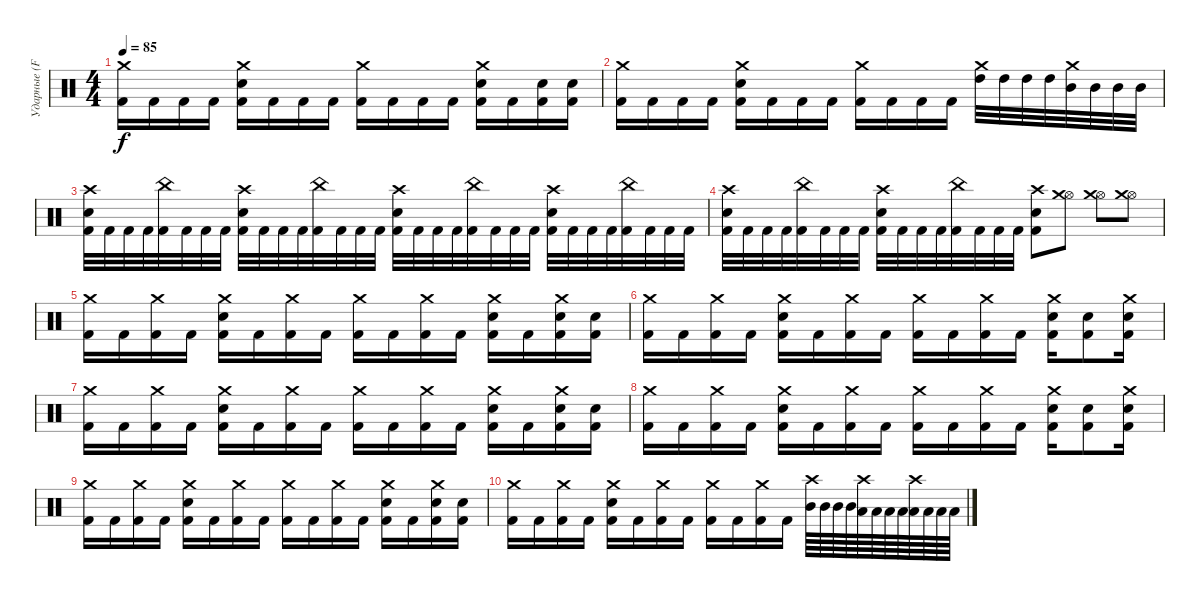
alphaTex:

\track ("Ударные (Feud'or)" "Ударные (F") {instrument percussion}
\staff {score}
\articulation defaults
\ts (4 4)
\tempo 85
\clef neutral
\ks c
("Crash medium (hit)" "Kick (hit) 2").16{dy f} "Kick (hit) 2".16 "Kick (hit) 2".16 "Kick (hit) 2".16 ("Crash medium (hit)" "Electric Snare (hit)" "Kick (hit) 2").16 "Kick (hit) 2".16 "Kick (hit) 2".16 "Kick (hit) 2".16 ("Crash medium (hit)" "Kick (hit) 2").16 "Kick (hit) 2".16 "Kick (hit) 2".16 "Kick (hit) 2".16 ("Crash medium (hit)" "Electric Snare (hit)" "Kick (hit) 2").16 "Kick (hit) 2".16 ("Electric Snare (hit)" "Kick (hit) 2").16 ("Electric Snare (hit)" "Kick (hit) 2").16 |
("Crash medium (hit)" "Kick (hit) 2").16 "Kick (hit) 2".16 "Kick (hit) 2".16 "Kick (hit) 2".16 ("Crash medium (hit)" "Electric Snare (hit)" "Kick (hit) 2").16 "Kick (hit) 2".16 "Kick (hit) 2".16 "Kick (hit) 2".16 ("Crash medium (hit)" "Kick (hit) 2").16 "Kick (hit) 2".16 "Kick (hit) 2".16 "Kick (hit) 2".16 ("Crash medium (hit)" "High Tom (hit)").32 "High Tom (hit)".32 "High Tom (hit)".32 "High Tom (hit)".32 ("Crash medium (hit)" "Mid Tom (hit)").32 "Mid Tom (hit)".32 "Mid Tom (hit)".32 "Mid Tom (hit)".32 |
("Crash high (hit)" "Electric Snare (hit)" "Kick (hit) 2").32 "Kick (hit) 2".32 "Kick (hit) 2".32 "Kick (hit) 2".32 ("China (hit)" "Kick (hit) 2").32 "Kick (hit) 2".32 "Kick (hit) 2".32 "Kick (hit) 2".32 ("Crash high (hit)" "Electric Snare (hit)" "Kick (hit) 2").32 "Kick (hit) 2".32 "Kick (hit) 2".32 "Kick (hit) 2".32 ("China (hit)" "Kick (hit) 2").32 "Kick (hit) 2".32 "Kick (hit) 2".32 "Kick (hit) 2".32 ("Crash high (hit)" "Electric Snare (hit)" "Kick (hit) 2").32 "Kick (hit) 2".32 "Kick (hit) 2".32 "Kick (hit) 2".32 ("China (hit)" "Kick (hit) 2").32 "Kick (hit) 2".32 "Kick (hit) 2".32 "Kick (hit) 2".32 ("Crash high (hit)" "Electric Snare (hit)" "Kick (hit) 2").32 "Kick (hit) 2".32 "Kick (hit) 2".32 "Kick (hit) 2".32 ("China (hit)" "Kick (hit) 2").32 "Kick (hit) 2".32 "Kick (hit) 2".32 "Kick (hit) 2".32 |
("Crash high (hit)" "Electric Snare (hit)" "Kick (hit) 2").32 "Kick (hit) 2".32 "Kick (hit) 2".32 "Kick (hit) 2".32 ("China (hit)" "Kick (hit) 2").32 "Kick (hit) 2".32 "Kick (hit) 2".32 "Kick (hit) 2".32 ("Crash high (hit)" "Electric Snare (hit)" "Kick (hit) 2").32 "Kick (hit) 2".32 "Kick (hit) 2".32 "Kick (hit) 2".32 ("China (hit)" "Kick (hit) 2").32 "Kick (hit) 2".32 "Kick (hit) 2".32 "Kick (hit) 2".32 ("Crash high (hit)" "Electric Snare (hit)" "Kick (hit) 2").8 ("Hi-Hat (open)" "Crash medium (hit)").8 ("Hi-Hat (open)" "Crash medium (hit)").8 ("Hi-Hat (open)" "Crash medium (hit)").8 |
("Crash medium (hit)" "Kick (hit) 2").16 "Kick (hit) 2".16 ("Crash medium (hit)" "Kick (hit) 2").16 "Kick (hit) 2".16 ("Crash medium (hit)" "Electric Snare (hit)" "Kick (hit) 2").16 "Kick (hit) 2".16 ("Crash medium (hit)" "Kick (hit) 2").16 "Kick (hit) 2".16 ("Crash medium (hit)" "Kick (hit) 2").16 "Kick (hit) 2".16 ("Crash medium (hit)" "Kick (hit) 2").16 "Kick (hit) 2".16 ("Crash medium (hit)" "Electric Snare (hit)" "Kick (hit) 2").16 "Kick (hit) 2".16 ("Crash medium (hit)" "Electric Snare (hit)" "Kick (hit) 2").16 ("Electric Snare (hit)" "Kick (hit) 2").16 |
("Crash medium (hit)" "Kick (hit) 2").16 "Kick (hit) 2".16 ("Crash medium (hit)" "Kick (hit) 2").16 "Kick (hit) 2".16 ("Crash medium (hit)" "Electric Snare (hit)" "Kick (hit) 2").16 "Kick (hit) 2".16 ("Crash medium (hit)" "Kick (hit) 2").16 "Kick (hit) 2".16 ("Crash medium (hit)" "Kick (hit) 2").16 "Kick (hit) 2".16 ("Crash medium (hit)" "Kick (hit) 2").16 "Kick (hit) 2".16 ("Crash medium (hit)" "Electric Snare (hit)" "Kick (hit) 2").16 ("Electric Snare (hit)" "Kick (hit) 2").8 ("Crash medium (hit)" "Electric Snare (hit)" "Kick (hit) 2").16 |
("Crash medium (hit)" "Kick (hit) 2").16 "Kick (hit) 2".16 ("Crash medium (hit)" "Kick (hit) 2").16 "Kick (hit) 2".16 ("Crash medium (hit)" "Electric Snare (hit)" "Kick (hit) 2").16 "Kick (hit) 2".16 ("Crash medium (hit)" "Kick (hit) 2").16 "Kick (hit) 2".16 ("Crash medium (hit)" "Kick (hit) 2").16 "Kick (hit) 2".16 ("Crash medium (hit)" "Kick (hit) 2").16 "Kick (hit) 2".16 ("Crash medium (hit)" "Electric Snare (hit)" "Kick (hit) 2").16 "Kick (hit) 2".16 ("Crash medium (hit)" "Electric Snare (hit)" "Kick (hit) 2").16 ("Electric Snare (hit)" "Kick (hit) 2").16 |
("Crash medium (hit)" "Kick (hit) 2").16 "Kick (hit) 2".16 ("Crash medium (hit)" "Kick (hit) 2").16 "Kick (hit) 2".16 ("Crash medium (hit)" "Electric Snare (hit)" "Kick (hit) 2").16 "Kick (hit) 2".16 ("Crash medium (hit)" "Kick (hit) 2").16 "Kick (hit) 2".16 ("Crash medium (hit)" "Kick (hit) 2").16 "Kick (hit) 2".16 ("Crash medium (hit)" "Kick (hit) 2").16 "Kick (hit) 2".16 ("Crash medium (hit)" "Electric Snare (hit)" "Kick (hit) 2").16 ("Electric Snare (hit)" "Kick (hit) 2").8 ("Crash medium (hit)" "Electric Snare (hit)" "Kick (hit) 2").16 |
("Crash medium (hit)" "Kick (hit) 2").16 "Kick (hit) 2".16 ("Crash medium (hit)" "Kick (hit) 2").16 "Kick (hit) 2".16 ("Crash medium (hit)" "Electric Snare (hit)" "Kick (hit) 2").16 "Kick (hit) 2".16 ("Crash medium (hit)" "Kick (hit) 2").16 "Kick (hit) 2".16 ("Crash medium (hit)" "Kick (hit) 2").16 "Kick (hit) 2".16 ("Crash medium (hit)" "Kick (hit) 2").16 "Kick (hit) 2".16 ("Crash medium (hit)" "Electric Snare (hit)" "Kick (hit) 2").16 "Kick (hit) 2".16 ("Crash medium (hit)" "Electric Snare (hit)" "Kick (hit) 2").16 ("Electric Snare (hit)" "Kick (hit) 2").16 |
("Crash medium (hit)" "Kick (hit) 2").16 "Kick (hit) 2".16 ("Crash medium (hit)" "Kick (hit) 2").16 "Kick (hit) 2".16 ("Crash medium (hit)" "Electric Snare (hit)" "Kick (hit) 2").16 "Kick (hit) 2".16 ("Crash medium (hit)" "Kick (hit) 2").16 "Kick (hit) 2".16 ("Crash medium (hit)" "Kick (hit) 2").16 "Kick (hit) 2".16 ("Crash medium (hit)" "Kick (hit) 2").16 "Kick (hit) 2".16 ("Crash high (hit)" "Mid Tom (hit)").64 "Mid Tom (hit)".64 "Mid Tom (hit)".64 "Mid Tom (hit)".64 ("Crash high (hit)" "Low Tom (hit)").64 "Low Tom (hit)".64 "Low Tom (hit)".64 "Low Tom (hit)".64 ("Crash high (hit)" "Low Floor Tom (hit)").64 "Low Floor Tom (hit)".64 "Low Floor Tom (hit)".64 "Low Floor Tom (hit)".64
